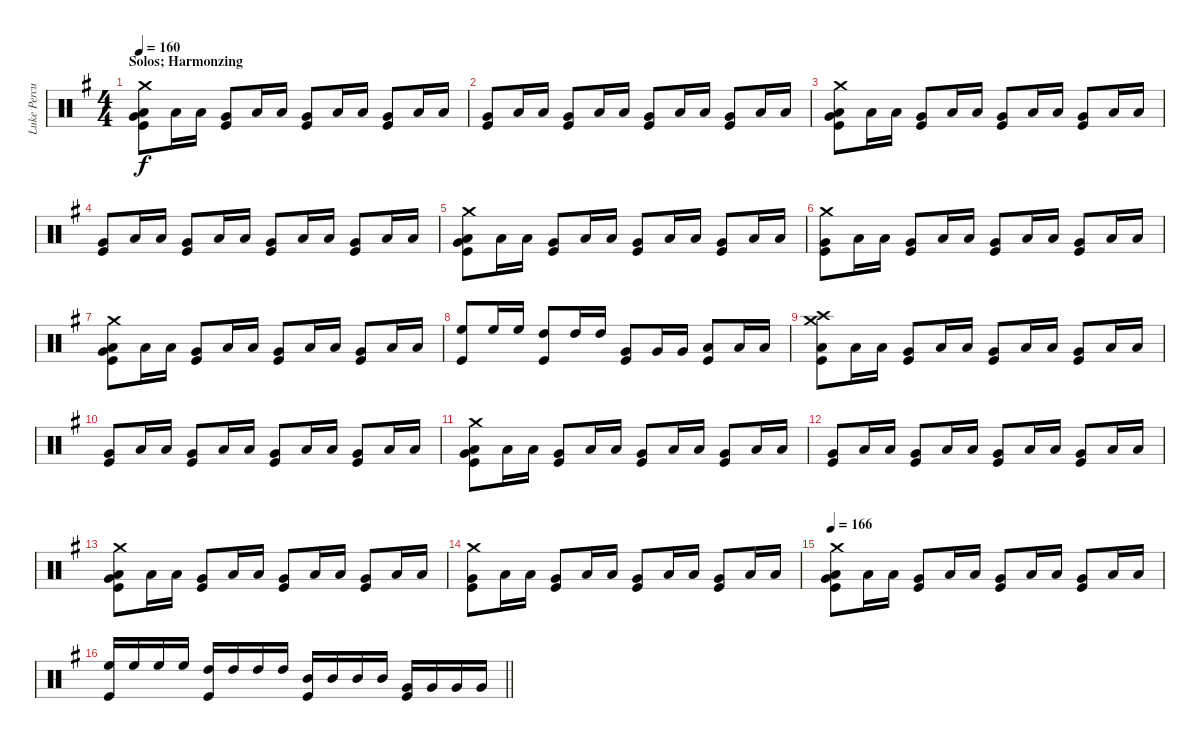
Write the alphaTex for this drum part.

\track ("Luke Percussion" "Luke Percu") {instrument percussion}
\staff {score}
\articulation defaults
\ts (4 4)
\section ("" "Solos; Harmonzing")
\tempo 160
\clef neutral
\ks eminor
("Crash medium (hit)" "Very Low Tom (hit)" "Low Floor Tom (hit)" "Kick (hit)").8{dy f} "Low Floor Tom (hit)".16 "Low Floor Tom (hit)".16 ("Very Low Tom (hit)" "Kick (hit)").8 "Low Floor Tom (hit)".16 "Low Floor Tom (hit)".16 ("Very Low Tom (hit)" "Kick (hit)").8 "Low Floor Tom (hit)".16 "Low Floor Tom (hit)".16 ("Very Low Tom (hit)" "Kick (hit)").8 "Low Floor Tom (hit)".16 "Low Floor Tom (hit)".16 |
("Very Low Tom (hit)" "Kick (hit)").8 "Low Floor Tom (hit)".16 "Low Floor Tom (hit)".16 ("Very Low Tom (hit)" "Kick (hit)").8 "Low Floor Tom (hit)".16 "Low Floor Tom (hit)".16 ("Very Low Tom (hit)" "Kick (hit)").8 "Low Floor Tom (hit)".16 "Low Floor Tom (hit)".16 ("Very Low Tom (hit)" "Kick (hit)").8 "Low Floor Tom (hit)".16 "Low Floor Tom (hit)".16 |
("Crash medium (hit)" "Very Low Tom (hit)" "Low Floor Tom (hit)" "Kick (hit)").8 "Low Floor Tom (hit)".16 "Low Floor Tom (hit)".16 ("Very Low Tom (hit)" "Kick (hit)").8 "Low Floor Tom (hit)".16 "Low Floor Tom (hit)".16 ("Very Low Tom (hit)" "Kick (hit)").8 "Low Floor Tom (hit)".16 "Low Floor Tom (hit)".16 ("Very Low Tom (hit)" "Kick (hit)").8 "Low Floor Tom (hit)".16 "Low Floor Tom (hit)".16 |
("Very Low Tom (hit)" "Kick (hit)").8 "Low Floor Tom (hit)".16 "Low Floor Tom (hit)".16 ("Very Low Tom (hit)" "Kick (hit)").8 "Low Floor Tom (hit)".16 "Low Floor Tom (hit)".16 ("Very Low Tom (hit)" "Kick (hit)").8 "Low Floor Tom (hit)".16 "Low Floor Tom (hit)".16 ("Very Low Tom (hit)" "Kick (hit)").8 "Low Floor Tom (hit)".16 "Low Floor Tom (hit)".16 |
("Crash medium (hit)" "Very Low Tom (hit)" "Low Floor Tom (hit)" "Kick (hit)").8 "Low Floor Tom (hit)".16 "Low Floor Tom (hit)".16 ("Very Low Tom (hit)" "Kick (hit)").8 "Low Floor Tom (hit)".16 "Low Floor Tom (hit)".16 ("Very Low Tom (hit)" "Kick (hit)").8 "Low Floor Tom (hit)".16 "Low Floor Tom (hit)".16 ("Very Low Tom (hit)" "Kick (hit)").8 "Low Floor Tom (hit)".16 "Low Floor Tom (hit)".16 |
("Crash medium (hit)" "Very Low Tom (hit)" "Kick (hit)").8 "Low Floor Tom (hit)".16 "Low Floor Tom (hit)".16 ("Very Low Tom (hit)" "Kick (hit)").8 "Low Floor Tom (hit)".16 "Low Floor Tom (hit)".16 ("Very Low Tom (hit)" "Kick (hit)").8 "Low Floor Tom (hit)".16 "Low Floor Tom (hit)".16 ("Very Low Tom (hit)" "Kick (hit)").8 "Low Floor Tom (hit)".16 "Low Floor Tom (hit)".16 |
("Crash medium (hit)" "Very Low Tom (hit)" "Low Floor Tom (hit)" "Kick (hit)").8 "Low Floor Tom (hit)".16 "Low Floor Tom (hit)".16 ("Very Low Tom (hit)" "Kick (hit)").8 "Low Floor Tom (hit)".16 "Low Floor Tom (hit)".16 ("Very Low Tom (hit)" "Kick (hit)").8 "Low Floor Tom (hit)".16 "Low Floor Tom (hit)".16 ("Very Low Tom (hit)" "Kick (hit)").8 "Low Floor Tom (hit)".16 "Low Floor Tom (hit)".16 |
("High Floor Tom (hit)" "Kick (hit)").8 "High Floor Tom (hit)".16 "High Floor Tom (hit)".16 ("High Tom (hit)" "Kick (hit)").8 "High Tom (hit)".16 "High Tom (hit)".16 ("Very Low Tom (hit)" "Kick (hit)").8 "Very Low Tom (hit)".16 "Very Low Tom (hit)".16 ("Low Floor Tom (hit)" "Kick (hit)").8 "Low Floor Tom (hit)".16 "Low Floor Tom (hit)".16 |
("Crash medium (hit)" "Crash high (hit)" "Low Floor Tom (hit)" "Kick (hit)").8 "Low Floor Tom (hit)".16 "Low Floor Tom (hit)".16 ("Very Low Tom (hit)" "Kick (hit)").8 "Low Floor Tom (hit)".16 "Low Floor Tom (hit)".16 ("Very Low Tom (hit)" "Kick (hit)").8 "Low Floor Tom (hit)".16 "Low Floor Tom (hit)".16 ("Very Low Tom (hit)" "Kick (hit)").8 "Low Floor Tom (hit)".16 "Low Floor Tom (hit)".16 |
("Very Low Tom (hit)" "Kick (hit)").8 "Low Floor Tom (hit)".16 "Low Floor Tom (hit)".16 ("Very Low Tom (hit)" "Kick (hit)").8 "Low Floor Tom (hit)".16 "Low Floor Tom (hit)".16 ("Very Low Tom (hit)" "Kick (hit)").8 "Low Floor Tom (hit)".16 "Low Floor Tom (hit)".16 ("Very Low Tom (hit)" "Kick (hit)").8 "Low Floor Tom (hit)".16 "Low Floor Tom (hit)".16 |
("Crash medium (hit)" "Very Low Tom (hit)" "Low Floor Tom (hit)" "Kick (hit)").8 "Low Floor Tom (hit)".16 "Low Floor Tom (hit)".16 ("Very Low Tom (hit)" "Kick (hit)").8 "Low Floor Tom (hit)".16 "Low Floor Tom (hit)".16 ("Very Low Tom (hit)" "Kick (hit)").8 "Low Floor Tom (hit)".16 "Low Floor Tom (hit)".16 ("Very Low Tom (hit)" "Kick (hit)").8 "Low Floor Tom (hit)".16 "Low Floor Tom (hit)".16 |
("Very Low Tom (hit)" "Kick (hit)").8 "Low Floor Tom (hit)".16 "Low Floor Tom (hit)".16 ("Very Low Tom (hit)" "Kick (hit)").8 "Low Floor Tom (hit)".16 "Low Floor Tom (hit)".16 ("Very Low Tom (hit)" "Kick (hit)").8 "Low Floor Tom (hit)".16 "Low Floor Tom (hit)".16 ("Very Low Tom (hit)" "Kick (hit)").8 "Low Floor Tom (hit)".16 "Low Floor Tom (hit)".16 |
("Crash medium (hit)" "Very Low Tom (hit)" "Low Floor Tom (hit)" "Kick (hit)").8 "Low Floor Tom (hit)".16 "Low Floor Tom (hit)".16 ("Very Low Tom (hit)" "Kick (hit)").8 "Low Floor Tom (hit)".16 "Low Floor Tom (hit)".16 ("Very Low Tom (hit)" "Kick (hit)").8 "Low Floor Tom (hit)".16 "Low Floor Tom (hit)".16 ("Very Low Tom (hit)" "Kick (hit)").8 "Low Floor Tom (hit)".16 "Low Floor Tom (hit)".16 |
("Crash medium (hit)" "Very Low Tom (hit)" "Kick (hit)").8 "Low Floor Tom (hit)".16 "Low Floor Tom (hit)".16 ("Very Low Tom (hit)" "Kick (hit)").8 "Low Floor Tom (hit)".16 "Low Floor Tom (hit)".16 ("Very Low Tom (hit)" "Kick (hit)").8 "Low Floor Tom (hit)".16 "Low Floor Tom (hit)".16 ("Very Low Tom (hit)" "Kick (hit)").8 "Low Floor Tom (hit)".16 "Low Floor Tom (hit)".16 |
\tempo 166
("Crash medium (hit)" "Very Low Tom (hit)" "Low Floor Tom (hit)" "Kick (hit)").8 "Low Floor Tom (hit)".16 "Low Floor Tom (hit)".16 ("Very Low Tom (hit)" "Kick (hit)").8 "Low Floor Tom (hit)".16 "Low Floor Tom (hit)".16 ("Very Low Tom (hit)" "Kick (hit)").8 "Low Floor Tom (hit)".16 "Low Floor Tom (hit)".16 ("Very Low Tom (hit)" "Kick (hit)").8 "Low Floor Tom (hit)".16 "Low Floor Tom (hit)".16 |
\barLineRight lightlight
("High Floor Tom (hit)" "Kick (hit)").16 "High Floor Tom (hit)".16 "High Floor Tom (hit)".16 "High Floor Tom (hit)".16 ("High Tom (hit)" "Kick (hit)").16 "High Tom (hit)".16 "High Tom (hit)".16 "High Tom (hit)".16 ("Mid Tom (hit)" "Kick (hit)").16 "Mid Tom (hit)".16 "Mid Tom (hit)".16 "Mid Tom (hit)".16 ("Very Low Tom (hit)" "Kick (hit)").16 "Very Low Tom (hit)".16 "Very Low Tom (hit)".16 "Very Low Tom (hit)".16
